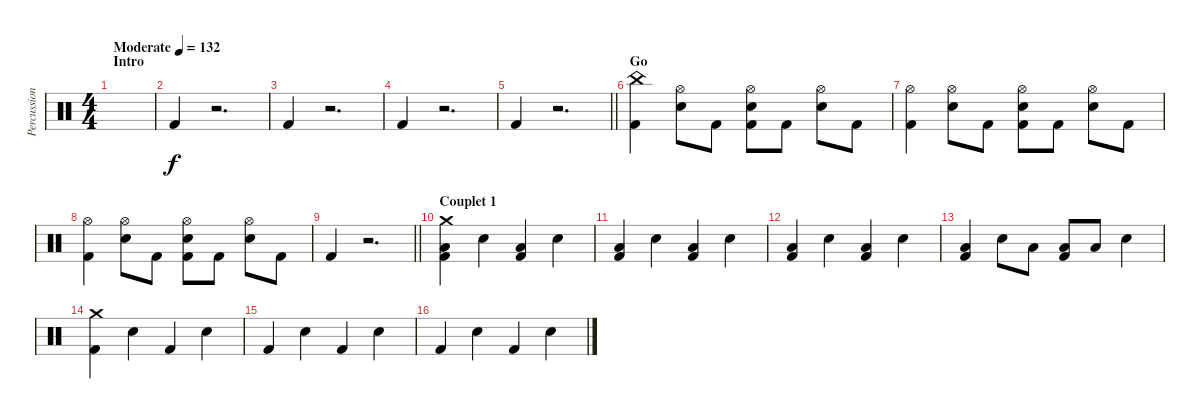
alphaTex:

\track ("Percussions" "Percussion") {instrument percussion}
\staff {score}
\articulation defaults
\ts (4 4)
\section ("" "Intro")
\tempo (132 "Moderate")
\clef neutral
\ks c
|
"Kick (hit) 2".4 r.2{d} |
"Kick (hit) 2".4 r.2{d} |
"Kick (hit) 2".4 r.2{d} |
\barLineRight lightlight "Kick (hit) 2".4
r.2{d} |
\section ("" "Go")
("Kick (hit) 2" "China (hit)").4 ("Electric Snare (hit)" "Hi-Hat (open)").8 "Kick (hit) 2".8 ("Kick (hit) 2" "Electric Snare (hit)" "Hi-Hat (open)").8 "Kick (hit) 2".8 ("Electric Snare (hit)" "Hi-Hat (open)").8 "Kick (hit) 2".8 |
("Kick (hit) 2" "Hi-Hat (open)").4 ("Electric Snare (hit)" "Hi-Hat (open)").8 "Kick (hit) 2".8 ("Kick (hit) 2" "Electric Snare (hit)" "Hi-Hat (open)").8 "Kick (hit) 2".8 ("Electric Snare (hit)" "Hi-Hat (open)").8 "Kick (hit) 2".8 |
("Kick (hit) 2" "Hi-Hat (open)").4 ("Electric Snare (hit)" "Hi-Hat (open)").8 "Kick (hit) 2".8 ("Kick (hit) 2" "Electric Snare (hit)" "Hi-Hat (open)").8 "Kick (hit) 2".8 ("Electric Snare (hit)" "Hi-Hat (open)").8 "Kick (hit) 2".8 |
\barLineRight lightlight "Kick (hit) 2".4
r.2{d} |
\section ("" "Couplet 1")
("Kick (hit) 2" "Low Floor Tom (hit)" "Crash medium (hit)").4 "Electric Snare (hit)".4 ("Kick (hit) 2" "Low Floor Tom (hit)").4 "Electric Snare (hit)".4 |
("Kick (hit) 2" "Low Floor Tom (hit)").4 "Electric Snare (hit)".4 ("Kick (hit) 2" "Low Floor Tom (hit)").4 "Electric Snare (hit)".4 |
("Kick (hit) 2" "Low Floor Tom (hit)").4 "Electric Snare (hit)".4 ("Kick (hit) 2" "Low Floor Tom (hit)").4 "Electric Snare (hit)".4 |
("Kick (hit) 2" "Low Floor Tom (hit)").4 "Electric Snare (hit)".8 "Low Floor Tom (hit)".8 ("Kick (hit) 2" "Low Floor Tom (hit)").8 "Low Floor Tom (hit)".8 "Electric Snare (hit)".4 |
("Kick (hit) 2" "Crash medium (hit)").4 "Electric Snare (hit)".4 "Kick (hit) 2".4 "Electric Snare (hit)".4 |
"Kick (hit) 2".4 "Electric Snare (hit)".4 "Kick (hit) 2".4 "Electric Snare (hit)".4 |
"Kick (hit) 2".4 "Electric Snare (hit)".4 "Kick (hit) 2".4 "Electric Snare (hit)".4
